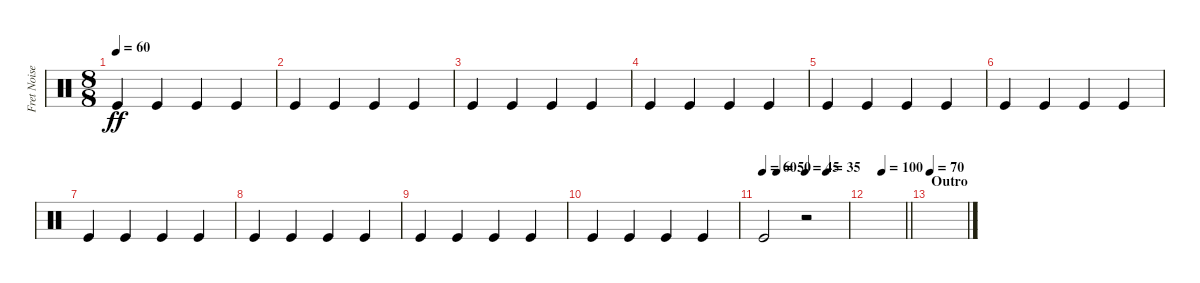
\track ("Fret Noise / Percussion(corpus)" "Fret Noise") {instrument percussion}
\staff {score}
\articulation defaults
\ts (8 8)
\tempo 60
\clef neutral
\ks c "Kick (hit)".4{dy ff volume 12} "Kick (hit)".4 "Kick (hit)".4 "Kick (hit)".4
|
"Kick (hit)".4 "Kick (hit)".4 "Kick (hit)".4 "Kick (hit)".4 |
"Kick (hit)".4 "Kick (hit)".4 "Kick (hit)".4 "Kick (hit)".4 |
"Kick (hit)".4 "Kick (hit)".4 "Kick (hit)".4 "Kick (hit)".4 |
"Kick (hit)".4 "Kick (hit)".4 "Kick (hit)".4 "Kick (hit)".4 |
"Kick (hit)".4 "Kick (hit)".4 "Kick (hit)".4 "Kick (hit)".4 |
"Kick (hit)".4 "Kick (hit)".4 "Kick (hit)".4 "Kick (hit)".4 |
"Kick (hit)".4 "Kick (hit)".4 "Kick (hit)".4 "Kick (hit)".4 |
"Kick (hit)".4 "Kick (hit)".4 "Kick (hit)".4 "Kick (hit)".4 |
"Kick (hit)".4 "Kick (hit)".4 "Kick (hit)".4 "Kick (hit)".4 |
\tempo 60
\tempo (50 0.16666666666666666)
\tempo (45 0.5)
\tempo (35 0.75)
"Kick (hit)".2 r.2 |
\tempo (100 0.375)
\barLineRight lightlight
|
\section ("" "Outro")
\tempo 70
